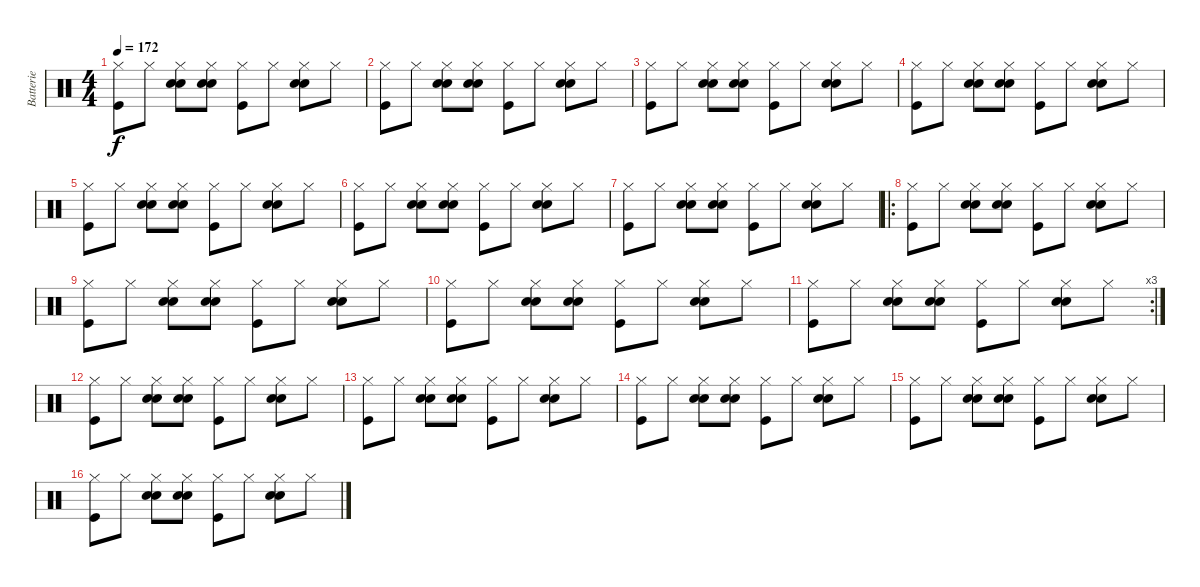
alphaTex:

\track ("Batterie" "Batterie") {instrument percussion}
\staff {score}
\articulation defaults
\ts (4 4)
\tempo 172
\clef neutral
\ks c
("Hi-Hat (closed)" "Kick (hit)").8{dy f} "Hi-Hat (closed)".8 ("Electric Snare (hit)" "Hi-Hat (closed)" "Snare (hit) 2").8 ("Electric Snare (hit)" "Hi-Hat (closed)" "Snare (hit) 2").8 ("Hi-Hat (closed)" "Kick (hit)").8 "Hi-Hat (closed)".8 ("Electric Snare (hit)" "Hi-Hat (closed)" "Snare (hit) 2").8 "Hi-Hat (closed)".8 |
("Hi-Hat (closed)" "Kick (hit)").8 "Hi-Hat (closed)".8 ("Electric Snare (hit)" "Hi-Hat (closed)" "Snare (hit) 2").8 ("Electric Snare (hit)" "Hi-Hat (closed)" "Snare (hit) 2").8 ("Hi-Hat (closed)" "Kick (hit)").8 "Hi-Hat (closed)".8 ("Electric Snare (hit)" "Hi-Hat (closed)" "Snare (hit) 2").8 "Hi-Hat (closed)".8 |
("Hi-Hat (closed)" "Kick (hit)").8 "Hi-Hat (closed)".8 ("Electric Snare (hit)" "Hi-Hat (closed)" "Snare (hit) 2").8 ("Electric Snare (hit)" "Hi-Hat (closed)" "Snare (hit) 2").8 ("Hi-Hat (closed)" "Kick (hit)").8 "Hi-Hat (closed)".8 ("Electric Snare (hit)" "Hi-Hat (closed)" "Snare (hit) 2").8 "Hi-Hat (closed)".8 |
("Hi-Hat (closed)" "Kick (hit)").8 "Hi-Hat (closed)".8 ("Electric Snare (hit)" "Hi-Hat (closed)" "Snare (hit) 2").8 ("Electric Snare (hit)" "Hi-Hat (closed)" "Snare (hit) 2").8 ("Hi-Hat (closed)" "Kick (hit)").8 "Hi-Hat (closed)".8 ("Electric Snare (hit)" "Hi-Hat (closed)" "Snare (hit) 2").8 "Hi-Hat (closed)".8 |
("Hi-Hat (closed)" "Kick (hit)").8 "Hi-Hat (closed)".8 ("Electric Snare (hit)" "Hi-Hat (closed)" "Snare (hit) 2").8 ("Electric Snare (hit)" "Hi-Hat (closed)" "Snare (hit) 2").8 ("Hi-Hat (closed)" "Kick (hit)").8 "Hi-Hat (closed)".8 ("Electric Snare (hit)" "Hi-Hat (closed)" "Snare (hit) 2").8 "Hi-Hat (closed)".8 |
("Hi-Hat (closed)" "Kick (hit)").8 "Hi-Hat (closed)".8 ("Electric Snare (hit)" "Hi-Hat (closed)" "Snare (hit) 2").8 ("Electric Snare (hit)" "Hi-Hat (closed)" "Snare (hit) 2").8 ("Hi-Hat (closed)" "Kick (hit)").8 "Hi-Hat (closed)".8 ("Electric Snare (hit)" "Hi-Hat (closed)" "Snare (hit) 2").8 "Hi-Hat (closed)".8 |
("Hi-Hat (closed)" "Kick (hit)").8 "Hi-Hat (closed)".8 ("Electric Snare (hit)" "Hi-Hat (closed)" "Snare (hit) 2").8 ("Electric Snare (hit)" "Hi-Hat (closed)" "Snare (hit) 2").8 ("Hi-Hat (closed)" "Kick (hit)").8 "Hi-Hat (closed)".8 ("Electric Snare (hit)" "Hi-Hat (closed)" "Snare (hit) 2").8 "Hi-Hat (closed)".8 |
\ro
("Hi-Hat (closed)" "Kick (hit)").8 "Hi-Hat (closed)".8 ("Electric Snare (hit)" "Hi-Hat (closed)" "Snare (hit) 2").8 ("Electric Snare (hit)" "Hi-Hat (closed)" "Snare (hit) 2").8 ("Hi-Hat (closed)" "Kick (hit)").8 "Hi-Hat (closed)".8 ("Electric Snare (hit)" "Hi-Hat (closed)" "Snare (hit) 2").8 "Hi-Hat (closed)".8 |
("Hi-Hat (closed)" "Kick (hit)").8 "Hi-Hat (closed)".8 ("Electric Snare (hit)" "Hi-Hat (closed)" "Snare (hit) 2").8 ("Electric Snare (hit)" "Hi-Hat (closed)" "Snare (hit) 2").8 ("Hi-Hat (closed)" "Kick (hit)").8 "Hi-Hat (closed)".8 ("Electric Snare (hit)" "Hi-Hat (closed)" "Snare (hit) 2").8 "Hi-Hat (closed)".8 |
("Hi-Hat (closed)" "Kick (hit)").8 "Hi-Hat (closed)".8 ("Electric Snare (hit)" "Hi-Hat (closed)" "Snare (hit) 2").8 ("Electric Snare (hit)" "Hi-Hat (closed)" "Snare (hit) 2").8 ("Hi-Hat (closed)" "Kick (hit)").8 "Hi-Hat (closed)".8 ("Electric Snare (hit)" "Hi-Hat (closed)" "Snare (hit) 2").8 "Hi-Hat (closed)".8 |
\rc 3
("Hi-Hat (closed)" "Kick (hit)").8 "Hi-Hat (closed)".8 ("Electric Snare (hit)" "Hi-Hat (closed)" "Snare (hit) 2").8 ("Electric Snare (hit)" "Hi-Hat (closed)" "Snare (hit) 2").8 ("Hi-Hat (closed)" "Kick (hit)").8 "Hi-Hat (closed)".8 ("Electric Snare (hit)" "Hi-Hat (closed)" "Snare (hit) 2").8 "Hi-Hat (closed)".8 |
("Hi-Hat (closed)" "Kick (hit)").8 "Hi-Hat (closed)".8 ("Electric Snare (hit)" "Hi-Hat (closed)" "Snare (hit) 2").8 ("Electric Snare (hit)" "Hi-Hat (closed)" "Snare (hit) 2").8 ("Hi-Hat (closed)" "Kick (hit)").8 "Hi-Hat (closed)".8 ("Electric Snare (hit)" "Hi-Hat (closed)" "Snare (hit) 2").8 "Hi-Hat (closed)".8 |
("Hi-Hat (closed)" "Kick (hit)").8 "Hi-Hat (closed)".8 ("Electric Snare (hit)" "Hi-Hat (closed)" "Snare (hit) 2").8 ("Electric Snare (hit)" "Hi-Hat (closed)" "Snare (hit) 2").8 ("Hi-Hat (closed)" "Kick (hit)").8 "Hi-Hat (closed)".8 ("Electric Snare (hit)" "Hi-Hat (closed)" "Snare (hit) 2").8 "Hi-Hat (closed)".8 |
("Hi-Hat (closed)" "Kick (hit)").8 "Hi-Hat (closed)".8 ("Electric Snare (hit)" "Hi-Hat (closed)" "Snare (hit) 2").8 ("Electric Snare (hit)" "Hi-Hat (closed)" "Snare (hit) 2").8 ("Hi-Hat (closed)" "Kick (hit)").8 "Hi-Hat (closed)".8 ("Electric Snare (hit)" "Hi-Hat (closed)" "Snare (hit) 2").8 "Hi-Hat (closed)".8 |
("Hi-Hat (closed)" "Kick (hit)").8 "Hi-Hat (closed)".8 ("Electric Snare (hit)" "Hi-Hat (closed)" "Snare (hit) 2").8 ("Electric Snare (hit)" "Hi-Hat (closed)" "Snare (hit) 2").8 ("Hi-Hat (closed)" "Kick (hit)").8 "Hi-Hat (closed)".8 ("Electric Snare (hit)" "Hi-Hat (closed)" "Snare (hit) 2").8 "Hi-Hat (closed)".8 |
("Hi-Hat (closed)" "Kick (hit)").8 "Hi-Hat (closed)".8 ("Electric Snare (hit)" "Hi-Hat (closed)" "Snare (hit) 2").8 ("Electric Snare (hit)" "Hi-Hat (closed)" "Snare (hit) 2").8 ("Hi-Hat (closed)" "Kick (hit)").8 "Hi-Hat (closed)".8 ("Electric Snare (hit)" "Hi-Hat (closed)" "Snare (hit) 2").8 "Hi-Hat (closed)".8
